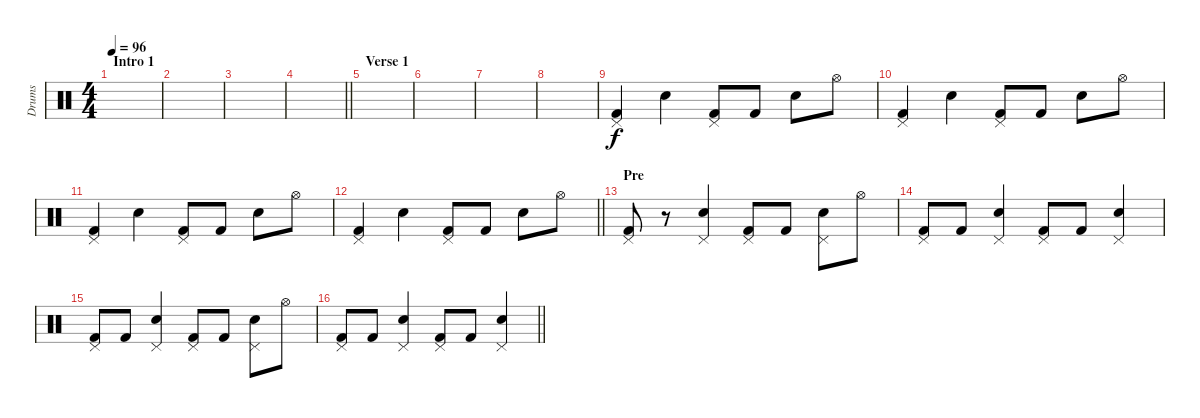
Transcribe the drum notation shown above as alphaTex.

\track ("Drums" "Drums") {instrument percussion}
\staff {score}
\articulation defaults
\ts (4 4)
\section ("" "Intro 1")
\tempo 96
\clef neutral
\ks c
|
|
|
\barLineRight lightlight
|
\section ("" "Verse 1")
|
|
|
|
("Pedal Hi-Hat (hit)" "Kick (hit) 2").4 "Electric Snare (hit)".4 ("Pedal Hi-Hat (hit)" "Kick (hit) 2").8 "Kick (hit) 2".8 "Electric Snare (hit)".8 "Hi-Hat (open)".8 |
("Pedal Hi-Hat (hit)" "Kick (hit) 2").4 "Electric Snare (hit)".4 ("Pedal Hi-Hat (hit)" "Kick (hit) 2").8 "Kick (hit) 2".8 "Electric Snare (hit)".8 "Hi-Hat (open)".8 |
("Pedal Hi-Hat (hit)" "Kick (hit) 2").4 "Electric Snare (hit)".4 ("Pedal Hi-Hat (hit)" "Kick (hit) 2").8 "Kick (hit) 2".8 "Electric Snare (hit)".8 "Hi-Hat (open)".8 |
\barLineRight lightlight
("Pedal Hi-Hat (hit)" "Kick (hit) 2").4 "Electric Snare (hit)".4 ("Pedal Hi-Hat (hit)" "Kick (hit) 2").8 "Kick (hit) 2".8 "Electric Snare (hit)".8 "Hi-Hat (open)".8 |
\section ("" "Pre")
("Pedal Hi-Hat (hit)" "Kick (hit) 2").8 r.8 ("Pedal Hi-Hat (hit)" "Electric Snare (hit)").4 ("Pedal Hi-Hat (hit)" "Kick (hit) 2").8 "Kick (hit) 2".8 ("Pedal Hi-Hat (hit)" "Electric Snare (hit)").8 "Hi-Hat (open)".8 |
("Pedal Hi-Hat (hit)" "Kick (hit) 2").8 "Kick (hit) 2".8 ("Pedal Hi-Hat (hit)" "Electric Snare (hit)").4 ("Pedal Hi-Hat (hit)" "Kick (hit) 2").8 "Kick (hit) 2".8 ("Pedal Hi-Hat (hit)" "Electric Snare (hit)").4 |
("Pedal Hi-Hat (hit)" "Kick (hit) 2").8 "Kick (hit) 2".8 ("Pedal Hi-Hat (hit)" "Electric Snare (hit)").4 ("Pedal Hi-Hat (hit)" "Kick (hit) 2").8 "Kick (hit) 2".8 ("Pedal Hi-Hat (hit)" "Electric Snare (hit)").8 "Hi-Hat (open)".8 |
\barLineRight lightlight
("Pedal Hi-Hat (hit)" "Kick (hit) 2").8 "Kick (hit) 2".8 ("Pedal Hi-Hat (hit)" "Electric Snare (hit)").4 ("Pedal Hi-Hat (hit)" "Kick (hit) 2").8 "Kick (hit) 2".8 ("Pedal Hi-Hat (hit)" "Electric Snare (hit)").4
